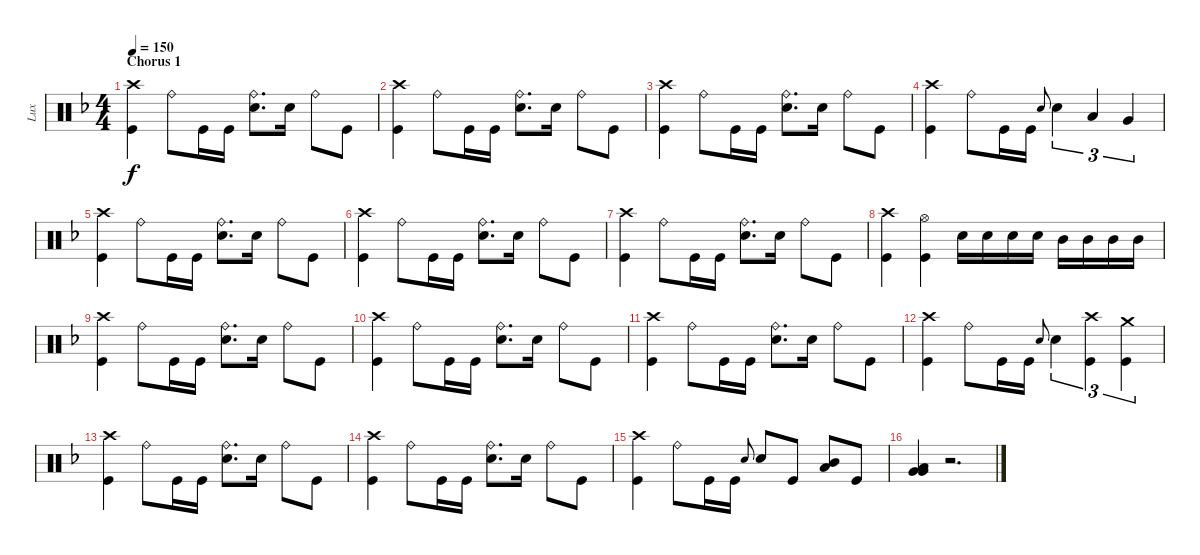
\track ("Lux" "Lux") {instrument percussion}
\staff {score}
\articulation defaults
\ts (4 4)
\section ("" "Chorus 1")
\tempo 150
\clef neutral
\ks dminor
("Crash high (hit)" "Kick (hit)").4{dy f} "Ride (bell)".8 "Kick (hit)".16 "Kick (hit)".16 ("Ride (bell)" "Snare (hit) 2").8{d} "Snare (hit) 2".16 "Ride (bell)".8 "Kick (hit)".8 |
("Crash high (hit)" "Kick (hit)").4 "Ride (bell)".8 "Kick (hit)".16 "Kick (hit)".16 ("Ride (bell)" "Snare (hit) 2").8{d} "Snare (hit) 2".16 "Ride (bell)".8 "Kick (hit)".8 |
("Crash high (hit)" "Kick (hit)").4 "Ride (bell)".8 "Kick (hit)".16 "Kick (hit)".16 ("Ride (bell)" "Snare (hit) 2").8{d} "Snare (hit) 2".16 "Ride (bell)".8 "Kick (hit)".8 |
("Crash high (hit)" "Kick (hit)").4 "Ride (bell)".8 "Kick (hit)".16 "Kick (hit)".16 "Snare (hit) 2".8{gr onbeat} "Snare (hit) 2".4{tu (3 2)} "Low Tom (hit)".4{tu (3 2)} "Very Low Tom (hit)".4{tu (3 2)} |
("Crash high (hit)" "Kick (hit)").4 "Ride (bell)".8 "Kick (hit)".16 "Kick (hit)".16 ("Ride (bell)" "Snare (hit) 2").8{d} "Snare (hit) 2".16 "Ride (bell)".8 "Kick (hit)".8 |
("Crash high (hit)" "Kick (hit)").4 "Ride (bell)".8 "Kick (hit)".16 "Kick (hit)".16 ("Ride (bell)" "Snare (hit) 2").8{d} "Snare (hit) 2".16 "Ride (bell)".8 "Kick (hit)".8 |
("Crash high (hit)" "Kick (hit)").4 "Ride (bell)".8 "Kick (hit)".16 "Kick (hit)".16 ("Ride (bell)" "Snare (hit) 2").8{d} "Snare (hit) 2".16 "Ride (bell)".8 "Kick (hit)".8 |
("Crash high (hit)" "Kick (hit)").4 ("Hi-Hat (open)" "Kick (hit)").4 "Snare (hit) 2".16 "Snare (hit) 2".16 "Snare (hit) 2".16 "Snare (hit) 2".16 "Mid Tom (hit)".16 "Mid Tom (hit)".16 "Mid Tom (hit)".16 "Mid Tom (hit)".16 |
("Crash high (hit)" "Kick (hit)").4 "Ride (bell)".8 "Kick (hit)".16 "Kick (hit)".16 ("Ride (bell)" "Snare (hit) 2").8{d} "Snare (hit) 2".16 "Ride (bell)".8 "Kick (hit)".8 |
("Crash high (hit)" "Kick (hit)").4 "Ride (bell)".8 "Kick (hit)".16 "Kick (hit)".16 ("Ride (bell)" "Snare (hit) 2").8{d} "Snare (hit) 2".16 "Ride (bell)".8 "Kick (hit)".8 |
("Crash high (hit)" "Kick (hit)").4 "Ride (bell)".8 "Kick (hit)".16 "Kick (hit)".16 ("Ride (bell)" "Snare (hit) 2").8{d} "Snare (hit) 2".16 "Ride (bell)".8 "Kick (hit)".8 |
("Crash high (hit)" "Kick (hit)").4 "Ride (bell)".8 "Kick (hit)".16 "Kick (hit)".16 "Snare (hit) 2".8{gr onbeat} "Snare (hit) 2".4{tu (3 2)} ("Crash high (hit)" "Kick (hit)").4{tu (3 2)} ("Crash medium (hit)" "Kick (hit)").4{tu (3 2)} |
("Crash high (hit)" "Kick (hit)").4 "Ride (bell)".8 "Kick (hit)".16 "Kick (hit)".16 ("Ride (bell)" "Snare (hit) 2").8{d} "Snare (hit) 2".16 "Ride (bell)".8 "Kick (hit)".8 |
("Crash high (hit)" "Kick (hit)").4 "Ride (bell)".8 "Kick (hit)".16 "Kick (hit)".16 ("Ride (bell)" "Snare (hit) 2").8{d} "Snare (hit) 2".16 "Ride (bell)".8 "Kick (hit)".8 |
("Crash high (hit)" "Kick (hit)").4 "Ride (bell)".8 "Kick (hit)".16 "Kick (hit)".16 "Snare (hit) 2".8{gr onbeat} "Snare (hit) 2".8 "Kick (hit)".8 ("Mid Tom (hit)" "Low Tom (hit)").8 "Kick (hit)".8 |
("Very Low Tom (hit)" "Very Low Tom (hit)" "Low Tom (hit)").4 r.2{d}
